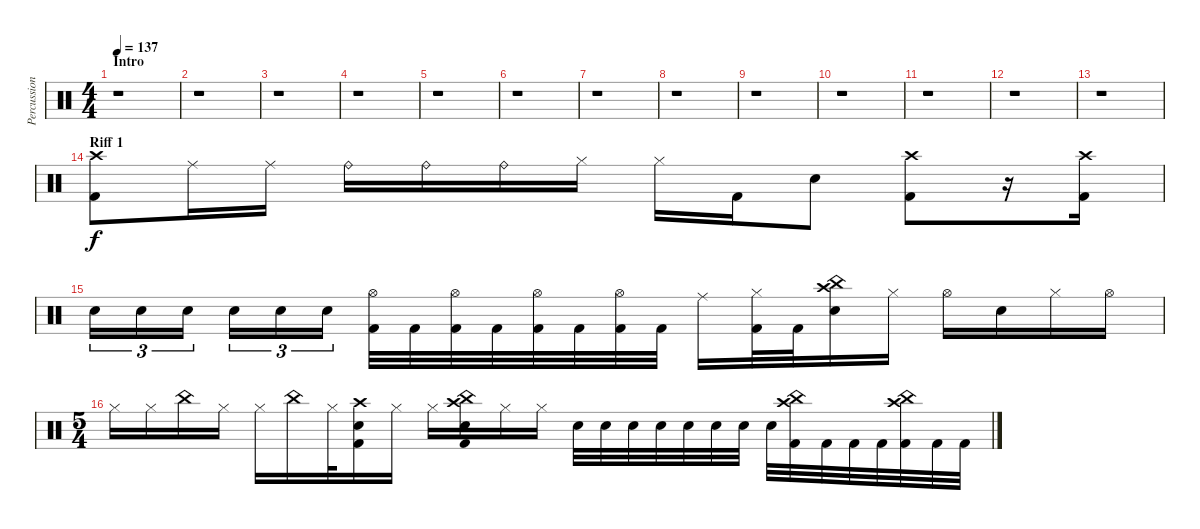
\track ("Percussion" "Percussion") {instrument percussion}
\staff {score}
\articulation defaults
\ts (4 4)
\section ("" "Intro")
\tempo 137
\clef neutral
\ks c
r.1{dy f} |
r.1 |
r.1 |
r.1 |
r.1 |
r.1 |
r.1 |
r.1 |
r.1 |
r.1 |
r.1 |
r.1 |
r.1 |
\section ("" "Riff 1")
("Crash high (hit)" "Kick (hit) 2").8 "Ride (middle)".16 "Ride (middle)".16 "Ride (bell)".16 "Ride (bell)".16 "Ride (bell)".16 "Hi-Hat (closed)".16 "Hi-Hat (closed)".16 "Kick (hit) 2".16 "Electric Snare (hit)".8 ("Crash high (hit)" "Kick (hit) 2").8 r.16 ("Crash high (hit)" "Kick (hit) 2").16 |
"Electric Snare (hit)".16{tu (3 2)} "Electric Snare (hit)".16{tu (3 2)} "Electric Snare (hit)".16{tu (3 2)} "Electric Snare (hit)".16{tu (3 2)} "Electric Snare (hit)".16{tu (3 2)} "Electric Snare (hit)".16{tu (3 2)} ("Hi-Hat (open)" "Kick (hit) 2").32 "Kick (hit) 2".32 ("Hi-Hat (open)" "Kick (hit) 2").32 "Kick (hit) 2".32 ("Hi-Hat (open)" "Kick (hit) 2").32 "Kick (hit) 2".32 ("Hi-Hat (open)" "Kick (hit) 2").32 "Kick (hit) 2".32 "Ride (middle)".16 ("Hi-Hat (closed)" "Kick (hit) 2").32 "Kick (hit) 2".32 ("China (hit)" "Crash high (hit)" "Electric Snare (hit)").16 "Hi-Hat (closed)".16 "Hi-Hat (open)".16 "Electric Snare (hit)".16 "Hi-Hat (closed)".16 "Hi-Hat (open)".16 |
\ts (5 4)
"Hi-Hat (closed)".16 "Hi-Hat (closed)".16 "China (hit)".16 "Hi-Hat (closed)".16 "Hi-Hat (closed)".16 "China (hit)".16 "Hi-Hat (closed)".32 ("Crash high (hit)" "Electric Snare (hit)" "Kick (hit) 2").16 "Hi-Hat (closed)".16 "Hi-Hat (closed)".16 ("China (hit)" "Crash high (hit)" "Electric Snare (hit)" "Kick (hit) 2").16 "Hi-Hat (closed)".16 "Hi-Hat (closed)".16 "Electric Snare (hit)".32 "Electric Snare (hit)".32 "Electric Snare (hit)".32 "Electric Snare (hit)".32 "Electric Snare (hit)".32 "Electric Snare (hit)".32 "Electric Snare (hit)".32 "Electric Snare (hit)".32 ("China (hit)" "Crash high (hit)" "Kick (hit) 2").32 "Kick (hit) 2".32 "Kick (hit) 2".32 "Kick (hit) 2".32 ("China (hit)" "Crash high (hit)" "Kick (hit) 2").32 "Kick (hit) 2".32 "Kick (hit) 2".32
